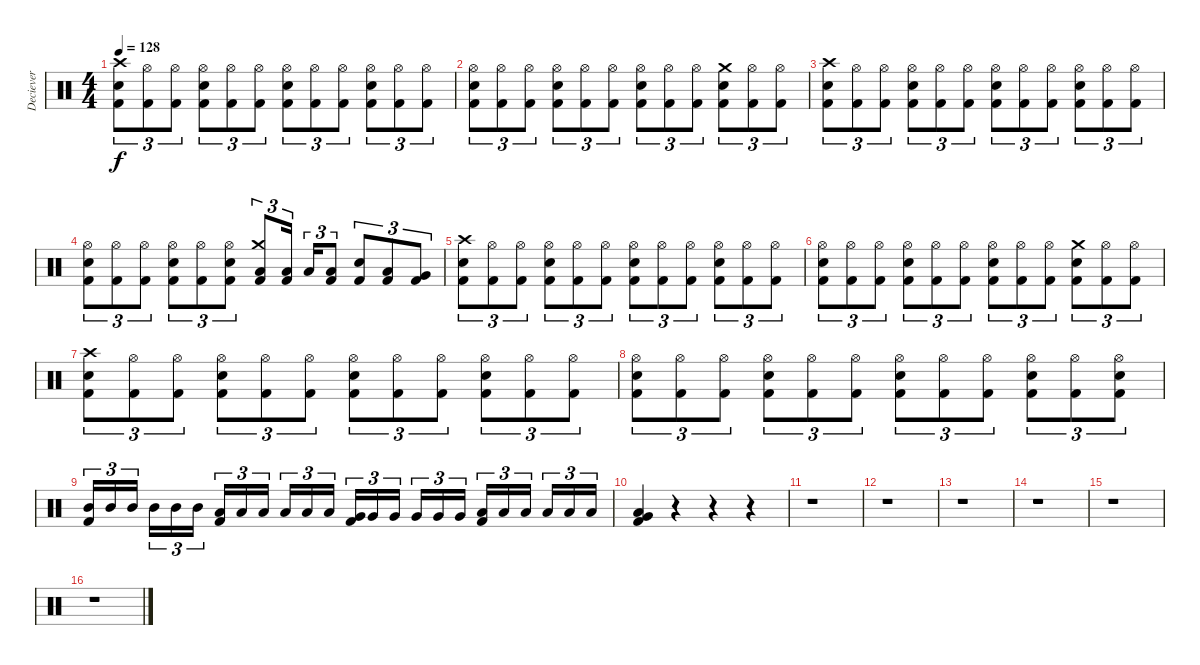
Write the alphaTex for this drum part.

\track ("Deciever" "Deciever") {instrument percussion}
\staff {score}
\articulation defaults
\ts (4 4)
\tempo 128
\clef neutral
\ks c
("Crash high (hit)" "Electric Snare (hit)" "Kick (hit) 2").8{tu (3 2) dy f} ("Hi-Hat (open)" "Kick (hit) 2").8{tu (3 2)} ("Hi-Hat (open)" "Kick (hit) 2").8{tu (3 2)} ("Hi-Hat (open)" "Electric Snare (hit)" "Kick (hit) 2").8{tu (3 2)} ("Hi-Hat (open)" "Kick (hit) 2").8{tu (3 2)} ("Hi-Hat (open)" "Kick (hit) 2").8{tu (3 2)} ("Hi-Hat (open)" "Electric Snare (hit)" "Kick (hit) 2").8{tu (3 2)} ("Hi-Hat (open)" "Kick (hit) 2").8{tu (3 2)} ("Hi-Hat (open)" "Kick (hit) 2").8{tu (3 2)} ("Hi-Hat (open)" "Electric Snare (hit)" "Kick (hit) 2").8{tu (3 2)} ("Hi-Hat (open)" "Kick (hit) 2").8{tu (3 2)} ("Hi-Hat (open)" "Kick (hit) 2").8{tu (3 2)} |
("Hi-Hat (open)" "Electric Snare (hit)" "Kick (hit) 2").8{tu (3 2)} ("Hi-Hat (open)" "Kick (hit) 2").8{tu (3 2)} ("Hi-Hat (open)" "Kick (hit) 2").8{tu (3 2)} ("Hi-Hat (open)" "Electric Snare (hit)" "Kick (hit) 2").8{tu (3 2)} ("Hi-Hat (open)" "Kick (hit) 2").8{tu (3 2)} ("Hi-Hat (open)" "Kick (hit) 2").8{tu (3 2)} ("Hi-Hat (open)" "Electric Snare (hit)" "Kick (hit) 2").8{tu (3 2)} ("Hi-Hat (open)" "Kick (hit) 2").8{tu (3 2)} ("Hi-Hat (open)" "Kick (hit) 2").8{tu (3 2)} ("Crash medium (hit)" "Electric Snare (hit)" "Kick (hit) 2").8{tu (3 2)} ("Hi-Hat (open)" "Kick (hit) 2").8{tu (3 2)} ("Hi-Hat (open)" "Kick (hit) 2").8{tu (3 2)} |
("Crash high (hit)" "Electric Snare (hit)" "Kick (hit) 2").8{tu (3 2)} ("Hi-Hat (open)" "Kick (hit) 2").8{tu (3 2)} ("Hi-Hat (open)" "Kick (hit) 2").8{tu (3 2)} ("Hi-Hat (open)" "Electric Snare (hit)" "Kick (hit) 2").8{tu (3 2)} ("Hi-Hat (open)" "Kick (hit) 2").8{tu (3 2)} ("Hi-Hat (open)" "Kick (hit) 2").8{tu (3 2)} ("Hi-Hat (open)" "Electric Snare (hit)" "Kick (hit) 2").8{tu (3 2)} ("Hi-Hat (open)" "Kick (hit) 2").8{tu (3 2)} ("Hi-Hat (open)" "Kick (hit) 2").8{tu (3 2)} ("Hi-Hat (open)" "Electric Snare (hit)" "Kick (hit) 2").8{tu (3 2)} ("Hi-Hat (open)" "Kick (hit) 2").8{tu (3 2)} ("Hi-Hat (open)" "Kick (hit) 2").8{tu (3 2)} |
("Hi-Hat (open)" "Electric Snare (hit)" "Kick (hit) 2").8{tu (3 2)} ("Hi-Hat (open)" "Kick (hit) 2").8{tu (3 2)} ("Hi-Hat (open)" "Kick (hit) 2").8{tu (3 2)} ("Hi-Hat (open)" "Electric Snare (hit)" "Kick (hit) 2").8{tu (3 2)} ("Hi-Hat (open)" "Kick (hit) 2").8{tu (3 2)} ("Hi-Hat (open)" "Electric Snare (hit)" "Kick (hit) 2").8{tu (3 2)} ("Crash medium (hit)" "Low Tom (hit)" "Kick (hit) 2").8{tu (3 2)} ("Low Tom (hit)" "Kick (hit) 2").16{tu (3 2) beam splitsecondary} "Low Tom (hit)".16{tu (3 2)} ("Low Tom (hit)" "Kick (hit) 2").8{tu (3 2)} ("Electric Snare (hit)" "Kick (hit) 2").8{tu (3 2)} ("Low Tom (hit)" "Kick (hit) 2").8{tu (3 2)} ("Very Low Tom (hit)" "Kick (hit) 2").8{tu (3 2)} |
("Crash high (hit)" "Electric Snare (hit)" "Kick (hit) 2").8{tu (3 2)} ("Hi-Hat (open)" "Kick (hit) 2").8{tu (3 2)} ("Hi-Hat (open)" "Kick (hit) 2").8{tu (3 2)} ("Hi-Hat (open)" "Electric Snare (hit)" "Kick (hit) 2").8{tu (3 2)} ("Hi-Hat (open)" "Kick (hit) 2").8{tu (3 2)} ("Hi-Hat (open)" "Kick (hit) 2").8{tu (3 2)} ("Hi-Hat (open)" "Electric Snare (hit)" "Kick (hit) 2").8{tu (3 2)} ("Hi-Hat (open)" "Kick (hit) 2").8{tu (3 2)} ("Hi-Hat (open)" "Kick (hit) 2").8{tu (3 2)} ("Hi-Hat (open)" "Electric Snare (hit)" "Kick (hit) 2").8{tu (3 2)} ("Hi-Hat (open)" "Kick (hit) 2").8{tu (3 2)} ("Hi-Hat (open)" "Kick (hit) 2").8{tu (3 2)} |
("Hi-Hat (open)" "Electric Snare (hit)" "Kick (hit) 2").8{tu (3 2)} ("Hi-Hat (open)" "Kick (hit) 2").8{tu (3 2)} ("Hi-Hat (open)" "Kick (hit) 2").8{tu (3 2)} ("Hi-Hat (open)" "Electric Snare (hit)" "Kick (hit) 2").8{tu (3 2)} ("Hi-Hat (open)" "Kick (hit) 2").8{tu (3 2)} ("Hi-Hat (open)" "Kick (hit) 2").8{tu (3 2)} ("Hi-Hat (open)" "Electric Snare (hit)" "Kick (hit) 2").8{tu (3 2)} ("Hi-Hat (open)" "Kick (hit) 2").8{tu (3 2)} ("Hi-Hat (open)" "Kick (hit) 2").8{tu (3 2)} ("Crash medium (hit)" "Electric Snare (hit)" "Kick (hit) 2").8{tu (3 2)} ("Hi-Hat (open)" "Kick (hit) 2").8{tu (3 2)} ("Hi-Hat (open)" "Kick (hit) 2").8{tu (3 2)} |
("Crash high (hit)" "Electric Snare (hit)" "Kick (hit) 2").8{tu (3 2)} ("Hi-Hat (open)" "Kick (hit) 2").8{tu (3 2)} ("Hi-Hat (open)" "Kick (hit) 2").8{tu (3 2)} ("Hi-Hat (open)" "Electric Snare (hit)" "Kick (hit) 2").8{tu (3 2)} ("Hi-Hat (open)" "Kick (hit) 2").8{tu (3 2)} ("Hi-Hat (open)" "Kick (hit) 2").8{tu (3 2)} ("Hi-Hat (open)" "Electric Snare (hit)" "Kick (hit) 2").8{tu (3 2)} ("Hi-Hat (open)" "Kick (hit) 2").8{tu (3 2)} ("Hi-Hat (open)" "Kick (hit) 2").8{tu (3 2)} ("Hi-Hat (open)" "Electric Snare (hit)" "Kick (hit) 2").8{tu (3 2)} ("Hi-Hat (open)" "Kick (hit) 2").8{tu (3 2)} ("Hi-Hat (open)" "Kick (hit) 2").8{tu (3 2)} |
("Hi-Hat (open)" "Electric Snare (hit)" "Kick (hit) 2").8{tu (3 2)} ("Hi-Hat (open)" "Kick (hit) 2").8{tu (3 2)} ("Hi-Hat (open)" "Kick (hit) 2").8{tu (3 2)} ("Hi-Hat (open)" "Electric Snare (hit)" "Kick (hit) 2").8{tu (3 2)} ("Hi-Hat (open)" "Kick (hit) 2").8{tu (3 2)} ("Hi-Hat (open)" "Kick (hit) 2").8{tu (3 2)} ("Hi-Hat (open)" "Electric Snare (hit)" "Kick (hit) 2").8{tu (3 2)} ("Hi-Hat (open)" "Kick (hit) 2").8{tu (3 2)} ("Hi-Hat (open)" "Kick (hit) 2").8{tu (3 2)} ("Hi-Hat (open)" "Electric Snare (hit)" "Kick (hit) 2").8{tu (3 2)} ("Hi-Hat (open)" "Kick (hit) 2").8{tu (3 2)} ("Hi-Hat (open)" "Electric Snare (hit)" "Kick (hit) 2").8{tu (3 2)} |
("Mid Tom (hit)" "Kick (hit) 2").16{tu (3 2)} "Mid Tom (hit)".16{tu (3 2)} "Mid Tom (hit)".16{tu (3 2) beam splitsecondary} "Mid Tom (hit)".16{tu (3 2)} "Mid Tom (hit)".16{tu (3 2)} "Mid Tom (hit)".16{tu (3 2)} ("Low Tom (hit)" "Kick (hit) 2").16{tu (3 2)} "Low Tom (hit)".16{tu (3 2)} "Low Tom (hit)".16{tu (3 2) beam splitsecondary} "Low Tom (hit)".16{tu (3 2)} "Low Tom (hit)".16{tu (3 2)} "Low Tom (hit)".16{tu (3 2)} ("Very Low Tom (hit)" "Kick (hit) 2").16{tu (3 2)} "Very Low Tom (hit)".16{tu (3 2)} "Very Low Tom (hit)".16{tu (3 2) beam splitsecondary} "Very Low Tom (hit)".16{tu (3 2)} "Very Low Tom (hit)".16{tu (3 2)} "Very Low Tom (hit)".16{tu (3 2)} ("Low Floor Tom (hit)" "Kick (hit) 2").16{tu (3 2)} "Low Floor Tom (hit)".16{tu (3 2)} "Low Floor Tom (hit)".16{tu (3 2) beam splitsecondary} "Low Floor Tom (hit)".16{tu (3 2)} "Low Floor Tom (hit)".16{tu (3 2)} "Low Floor Tom (hit)".16{tu (3 2)} |
("Very Low Tom (hit)" "Low Tom (hit)" "Kick (hit) 2").4 r.4 r.4 r.4 |
r.1 |
r.1 |
r.1 |
r.1 |
r.1 |
r.1
